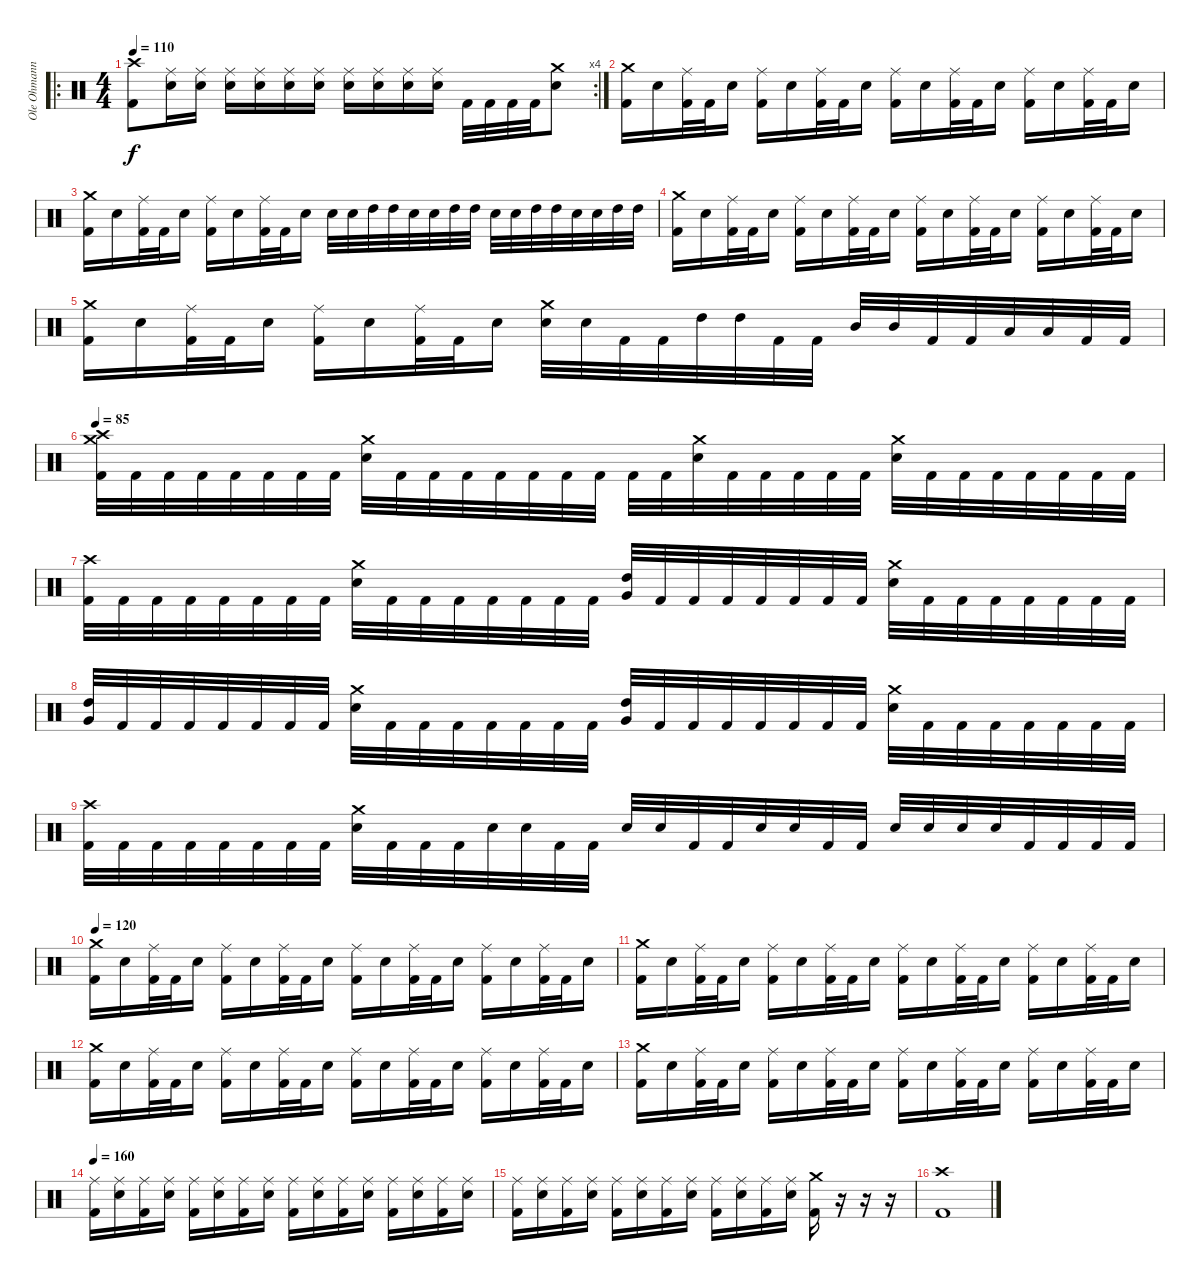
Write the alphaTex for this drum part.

\track ("Ole Ohmann" "Ole Ohmann") {instrument percussion}
\staff {score}
\articulation defaults
\ro
\rc 4
\ts (4 4)
\tempo 110
\clef neutral
\ks c
("Crash high (hit)" "Kick (hit) 2").8{dy f} ("Ride (middle)" "Electric Snare (hit)").16 ("Ride (middle)" "Electric Snare (hit)").16 ("Ride (middle)" "Electric Snare (hit)").16 ("Ride (middle)" "Electric Snare (hit)").16 ("Ride (middle)" "Electric Snare (hit)").16 ("Ride (middle)" "Electric Snare (hit)").16 ("Ride (middle)" "Electric Snare (hit)").16 ("Ride (middle)" "Electric Snare (hit)").16 ("Ride (middle)" "Electric Snare (hit)").16 ("Ride (middle)" "Electric Snare (hit)").16 "Kick (hit) 2".32 "Kick (hit) 2".32 "Kick (hit) 2".32 "Kick (hit) 2".32 ("Electric Snare (hit)" "Crash medium (hit)").8 |
("Crash medium (hit)" "Kick (hit) 2").16 "Electric Snare (hit)".16 ("Ride (middle)" "Kick (hit) 2").32 "Kick (hit) 2".32 "Electric Snare (hit)".16 ("Ride (middle)" "Kick (hit) 2").16 "Electric Snare (hit)".16 ("Ride (middle)" "Kick (hit) 2").32 "Kick (hit) 2".32 "Electric Snare (hit)".16 ("Ride (middle)" "Kick (hit) 2").16 "Electric Snare (hit)".16 ("Ride (middle)" "Kick (hit) 2").32 "Kick (hit) 2".32 "Electric Snare (hit)".16 ("Ride (middle)" "Kick (hit) 2").16 "Electric Snare (hit)".16 ("Ride (middle)" "Kick (hit) 2").32 "Kick (hit) 2".32 "Electric Snare (hit)".16 |
("Crash medium (hit)" "Kick (hit) 2").16 "Electric Snare (hit)".16 ("Ride (middle)" "Kick (hit) 2").32 "Kick (hit) 2".32 "Electric Snare (hit)".16 ("Ride (middle)" "Kick (hit) 2").16 "Electric Snare (hit)".16 ("Ride (middle)" "Kick (hit) 2").32 "Kick (hit) 2".32 "Electric Snare (hit)".16 "Electric Snare (hit)".32 "Electric Snare (hit)".32 "High Tom (hit)".32 "High Tom (hit)".32 "Electric Snare (hit)".32 "Electric Snare (hit)".32 "High Tom (hit)".32 "High Tom (hit)".32 "Electric Snare (hit)".32 "Electric Snare (hit)".32 "High Tom (hit)".32 "High Tom (hit)".32 "Electric Snare (hit)".32 "Electric Snare (hit)".32 "High Tom (hit)".32 "High Tom (hit)".32 |
("Crash medium (hit)" "Kick (hit) 2").16 "Electric Snare (hit)".16 ("Ride (middle)" "Kick (hit) 2").32 "Kick (hit) 2".32 "Electric Snare (hit)".16 ("Ride (middle)" "Kick (hit) 2").16 "Electric Snare (hit)".16 ("Ride (middle)" "Kick (hit) 2").32 "Kick (hit) 2".32 "Electric Snare (hit)".16 ("Ride (middle)" "Kick (hit) 2").16 "Electric Snare (hit)".16 ("Ride (middle)" "Kick (hit) 2").32 "Kick (hit) 2".32 "Electric Snare (hit)".16 ("Ride (middle)" "Kick (hit) 2").16 "Electric Snare (hit)".16 ("Ride (middle)" "Kick (hit) 2").32 "Kick (hit) 2".32 "Electric Snare (hit)".16 |
("Crash medium (hit)" "Kick (hit) 2").16 "Electric Snare (hit)".16 ("Ride (middle)" "Kick (hit) 2").32 "Kick (hit) 2".32 "Electric Snare (hit)".16 ("Ride (middle)" "Kick (hit) 2").16 "Electric Snare (hit)".16 ("Ride (middle)" "Kick (hit) 2").32 "Kick (hit) 2".32 "Electric Snare (hit)".16 ("Crash medium (hit)" "Electric Snare (hit)").32 "Electric Snare (hit)".32 "Kick (hit) 2".32 "Kick (hit) 2".32 "High Tom (hit)".32 "High Tom (hit)".32 "Kick (hit) 2".32 "Kick (hit) 2".32 "Mid Tom (hit)".32 "Mid Tom (hit)".32 "Kick (hit) 2".32 "Kick (hit) 2".32 "Low Tom (hit)".32 "Low Tom (hit)".32 "Kick (hit) 2".32 "Kick (hit) 2".32 |
\tempo 85
("Crash medium (hit)" "Crash high (hit)" "Kick (hit) 2").32 "Kick (hit) 2".32 "Kick (hit) 2".32 "Kick (hit) 2".32 "Kick (hit) 2".32 "Kick (hit) 2".32 "Kick (hit) 2".32 "Kick (hit) 2".32 ("Crash medium (hit)" "Electric Snare (hit)").32 "Kick (hit) 2".32 "Kick (hit) 2".32 "Kick (hit) 2".32 "Kick (hit) 2".32 "Kick (hit) 2".32 "Kick (hit) 2".32 "Kick (hit) 2".32 "Kick (hit) 2".32 "Kick (hit) 2".32 ("Crash medium (hit)" "Electric Snare (hit)").32 "Kick (hit) 2".32 "Kick (hit) 2".32 "Kick (hit) 2".32 "Kick (hit) 2".32 "Kick (hit) 2".32 ("Crash medium (hit)" "Electric Snare (hit)").32 "Kick (hit) 2".32 "Kick (hit) 2".32 "Kick (hit) 2".32 "Kick (hit) 2".32 "Kick (hit) 2".32 "Kick (hit) 2".32 "Kick (hit) 2".32 |
("Crash high (hit)" "Kick (hit) 2").32 "Kick (hit) 2".32 "Kick (hit) 2".32 "Kick (hit) 2".32 "Kick (hit) 2".32 "Kick (hit) 2".32 "Kick (hit) 2".32 "Kick (hit) 2".32 ("Crash medium (hit)" "Electric Snare (hit)").32 "Kick (hit) 2".32 "Kick (hit) 2".32 "Kick (hit) 2".32 "Kick (hit) 2".32 "Kick (hit) 2".32 "Kick (hit) 2".32 "Kick (hit) 2".32 ("Very Low Tom (hit)" "High Tom (hit)").32 "Kick (hit) 2".32 "Kick (hit) 2".32 "Kick (hit) 2".32 "Kick (hit) 2".32 "Kick (hit) 2".32 "Kick (hit) 2".32 "Kick (hit) 2".32 ("Crash medium (hit)" "Electric Snare (hit)").32 "Kick (hit) 2".32 "Kick (hit) 2".32 "Kick (hit) 2".32 "Kick (hit) 2".32 "Kick (hit) 2".32 "Kick (hit) 2".32 "Kick (hit) 2".32 |
("Very Low Tom (hit)" "High Tom (hit)").32 "Kick (hit) 2".32 "Kick (hit) 2".32 "Kick (hit) 2".32 "Kick (hit) 2".32 "Kick (hit) 2".32 "Kick (hit) 2".32 "Kick (hit) 2".32 ("Crash medium (hit)" "Electric Snare (hit)").32 "Kick (hit) 2".32 "Kick (hit) 2".32 "Kick (hit) 2".32 "Kick (hit) 2".32 "Kick (hit) 2".32 "Kick (hit) 2".32 "Kick (hit) 2".32 ("High Tom (hit)" "Very Low Tom (hit)").32 "Kick (hit) 2".32 "Kick (hit) 2".32 "Kick (hit) 2".32 "Kick (hit) 2".32 "Kick (hit) 2".32 "Kick (hit) 2".32 "Kick (hit) 2".32 ("Crash medium (hit)" "Electric Snare (hit)").32 "Kick (hit) 2".32 "Kick (hit) 2".32 "Kick (hit) 2".32 "Kick (hit) 2".32 "Kick (hit) 2".32 "Kick (hit) 2".32 "Kick (hit) 2".32 |
("Crash high (hit)" "Kick (hit) 2").32 "Kick (hit) 2".32 "Kick (hit) 2".32 "Kick (hit) 2".32 "Kick (hit) 2".32 "Kick (hit) 2".32 "Kick (hit) 2".32 "Kick (hit) 2".32 ("Crash medium (hit)" "Electric Snare (hit)").32 "Kick (hit) 2".32 "Kick (hit) 2".32 "Kick (hit) 2".32 "Electric Snare (hit)".32 "Electric Snare (hit)".32 "Kick (hit) 2".32 "Kick (hit) 2".32 "Electric Snare (hit)".32 "Electric Snare (hit)".32 "Kick (hit) 2".32 "Kick (hit) 2".32 "Electric Snare (hit)".32 "Electric Snare (hit)".32 "Kick (hit) 2".32 "Kick (hit) 2".32 "Electric Snare (hit)".32 "Electric Snare (hit)".32 "Electric Snare (hit)".32 "Electric Snare (hit)".32 "Kick (hit) 2".32 "Kick (hit) 2".32 "Kick (hit) 2".32 "Kick (hit) 2".32 |
\tempo 120
("Crash medium (hit)" "Kick (hit) 2").16 "Electric Snare (hit)".16 ("Ride (middle)" "Kick (hit) 2").32 "Kick (hit) 2".32 "Electric Snare (hit)".16 ("Ride (middle)" "Kick (hit) 2").16 "Electric Snare (hit)".16 ("Ride (middle)" "Kick (hit) 2").32 "Kick (hit) 2".32 "Electric Snare (hit)".16 ("Ride (middle)" "Kick (hit) 2").16 "Electric Snare (hit)".16 ("Ride (middle)" "Kick (hit) 2").32 "Kick (hit) 2".32 "Electric Snare (hit)".16 ("Ride (middle)" "Kick (hit) 2").16 "Electric Snare (hit)".16 ("Ride (middle)" "Kick (hit) 2").32 "Kick (hit) 2".32 "Electric Snare (hit)".16 |
("Crash medium (hit)" "Kick (hit) 2").16 "Electric Snare (hit)".16 ("Ride (middle)" "Kick (hit) 2").32 "Kick (hit) 2".32 "Electric Snare (hit)".16 ("Ride (middle)" "Kick (hit) 2").16 "Electric Snare (hit)".16 ("Ride (middle)" "Kick (hit) 2").32 "Kick (hit) 2".32 "Electric Snare (hit)".16 ("Ride (middle)" "Kick (hit) 2").16 "Electric Snare (hit)".16 ("Ride (middle)" "Kick (hit) 2").32 "Kick (hit) 2".32 "Electric Snare (hit)".16 ("Ride (middle)" "Kick (hit) 2").16 "Electric Snare (hit)".16 ("Ride (middle)" "Kick (hit) 2").32 "Kick (hit) 2".32 "Electric Snare (hit)".16 |
("Crash medium (hit)" "Kick (hit) 2").16 "Electric Snare (hit)".16 ("Ride (middle)" "Kick (hit) 2").32 "Kick (hit) 2".32 "Electric Snare (hit)".16 ("Ride (middle)" "Kick (hit) 2").16 "Electric Snare (hit)".16 ("Ride (middle)" "Kick (hit) 2").32 "Kick (hit) 2".32 "Electric Snare (hit)".16 ("Ride (middle)" "Kick (hit) 2").16 "Electric Snare (hit)".16 ("Ride (middle)" "Kick (hit) 2").32 "Kick (hit) 2".32 "Electric Snare (hit)".16 ("Ride (middle)" "Kick (hit) 2").16 "Electric Snare (hit)".16 ("Ride (middle)" "Kick (hit) 2").32 "Kick (hit) 2".32 "Electric Snare (hit)".16 |
("Crash medium (hit)" "Kick (hit) 2").16 "Electric Snare (hit)".16 ("Ride (middle)" "Kick (hit) 2").32 "Kick (hit) 2".32 "Electric Snare (hit)".16 ("Ride (middle)" "Kick (hit) 2").16 "Electric Snare (hit)".16 ("Ride (middle)" "Kick (hit) 2").32 "Kick (hit) 2".32 "Electric Snare (hit)".16 ("Ride (middle)" "Kick (hit) 2").16 "Electric Snare (hit)".16 ("Ride (middle)" "Kick (hit) 2").32 "Kick (hit) 2".32 "Electric Snare (hit)".16 ("Ride (middle)" "Kick (hit) 2").16 "Electric Snare (hit)".16 ("Ride (middle)" "Kick (hit) 2").32 "Kick (hit) 2".32 "Electric Snare (hit)".16 |
\tempo 160
("Ride (middle)" "Kick (hit) 2").16 ("Ride (middle)" "Electric Snare (hit)").16 ("Ride (middle)" "Kick (hit) 2").16 ("Ride (middle)" "Electric Snare (hit)").16 ("Ride (middle)" "Kick (hit) 2").16 ("Ride (middle)" "Electric Snare (hit)").16 ("Ride (middle)" "Kick (hit) 2").16 ("Ride (middle)" "Electric Snare (hit)").16 ("Ride (middle)" "Kick (hit) 2").16 ("Ride (middle)" "Electric Snare (hit)").16 ("Ride (middle)" "Kick (hit) 2").16 ("Ride (middle)" "Electric Snare (hit)").16 ("Ride (middle)" "Kick (hit) 2").16 ("Ride (middle)" "Electric Snare (hit)").16 ("Ride (middle)" "Kick (hit) 2").16 ("Ride (middle)" "Electric Snare (hit)").16 |
("Ride (middle)" "Kick (hit) 2").16 ("Ride (middle)" "Electric Snare (hit)").16 ("Ride (middle)" "Kick (hit) 2").16 ("Ride (middle)" "Electric Snare (hit)").16 ("Ride (middle)" "Kick (hit) 2").16 ("Ride (middle)" "Electric Snare (hit)").16 ("Ride (middle)" "Kick (hit) 2").16 ("Ride (middle)" "Electric Snare (hit)").16 ("Ride (middle)" "Kick (hit) 2").16 ("Ride (middle)" "Electric Snare (hit)").16 ("Ride (middle)" "Kick (hit) 2").16 ("Ride (middle)" "Electric Snare (hit)").16 ("Crash medium (hit)" "Kick (hit) 2").16 r.16 r.16 r.16 |
("Crash high (hit)" "Kick (hit) 2").1
